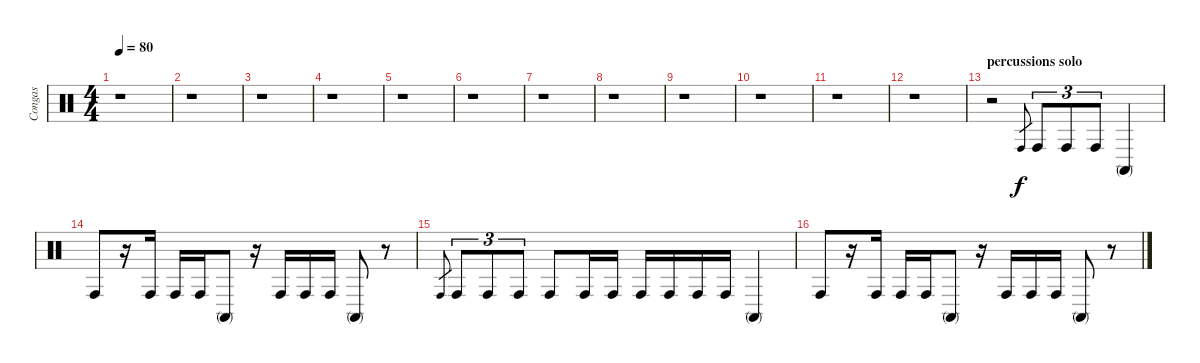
\track ("Congas" "Congas") {instrument percussion}
\staff {score}
\articulation defaults
\ts (4 4)
\tempo 80
\clef neutral
\ks aminor
r.1{dy f} |
r.1 |
r.1 |
r.1 |
r.1 |
r.1 |
r.1 |
r.1 |
r.1 |
r.1 |
r.1 |
r.1 |
\section ("" "percussions solo")
r.2 "Conga high (hit)".8{gr} "Conga high (hit)".8{tu (3 2)} "Conga high (hit)".8{tu (3 2)} "Conga high (hit)".8{tu (3 2)} "Conga high (mute)".4 |
"Conga high (hit)".8 r.16 "Conga high (hit)".16 "Conga high (hit)".16 "Conga high (hit)".16 "Conga high (mute)".8 r.16 "Conga high (hit)".16 "Conga high (hit)".16 "Conga high (hit)".16 "Conga high (mute)".8 r.8 |
"Conga high (hit)".8{gr} "Conga high (hit)".8{tu (3 2)} "Conga high (hit)".8{tu (3 2)} "Conga high (hit)".8{tu (3 2)} "Conga high (hit)".8 "Conga high (hit)".16 "Conga high (hit)".16 "Conga high (hit)".16 "Conga high (hit)".16 "Conga high (hit)".16 "Conga high (hit)".16 "Conga high (mute)".4 |
"Conga high (hit)".8 r.16 "Conga high (hit)".16 "Conga high (hit)".16 "Conga high (hit)".16 "Conga high (mute)".8 r.16 "Conga high (hit)".16 "Conga high (hit)".16 "Conga high (hit)".16 "Conga high (mute)".8 r.8
